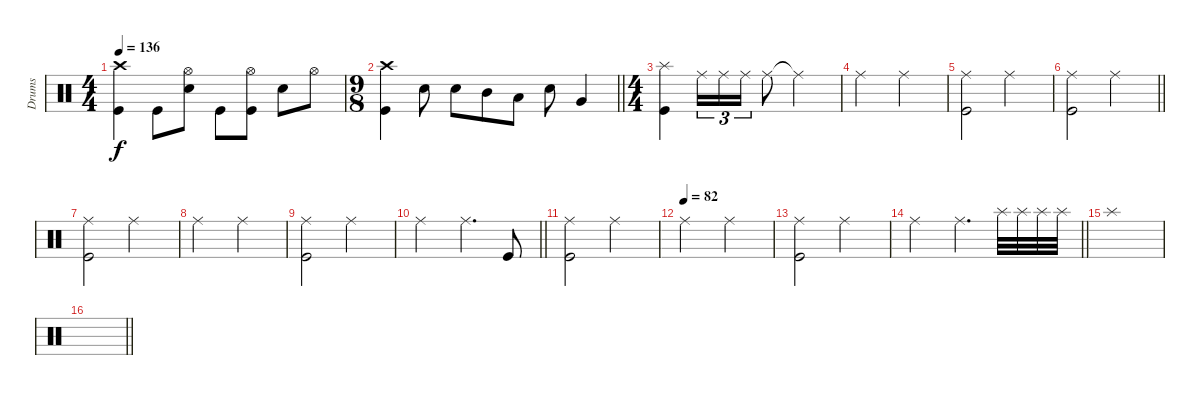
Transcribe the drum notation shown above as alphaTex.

\track ("Drums" "Drums") {instrument percussion}
\staff
\articulation defaults
\ts (4 4)
\tempo 136
\clef neutral
\ks c
("Crash high (hit)" "Kick (hit)").4{dy f} "Kick (hit)".8 ("Hi-Hat (open)" "Electric Snare (hit)").8 "Kick (hit)".8 ("Hi-Hat (open)" "Kick (hit)").8 "Electric Snare (hit)".8 "Hi-Hat (open)".8 |
\ts (9 8)
\barLineRight lightlight
("Crash high (hit)" "Kick (hit)").4 "Electric Snare (hit)".8 "Electric Snare (hit)".8 "Mid Tom (hit)".8 "Low Tom (hit)".8 "Electric Snare (hit)".8 "Very Low Tom (hit)".4 |
\ts (4 4)
\section ("" "")
("Splash (hit)" "Kick (hit)").4 "Ride (middle)".16{tu (3 2)} "Ride (middle)".16{tu (3 2)} "Ride (middle)".16{tu (3 2)} "Ride (middle)".8 "Ride (middle)"{t}.2 |
"Ride (middle)".2 "Ride (middle)".2 |
("Ride (middle)" "Kick (hit)").2 "Ride (middle)".2 |
\barLineRight lightlight
("Ride (middle)" "Kick (hit)").2 "Ride (middle)".2 |
("Ride (middle)" "Kick (hit)").2 "Ride (middle)".2 |
"Ride (middle)".2 "Ride (middle)".2 |
("Ride (middle)" "Kick (hit)").2 "Ride (middle)".2 |
\barLineRight lightlight "Ride (middle)".2 "Ride (middle)".4{d} "Kick (hit)".8
|
("Ride (middle)" "Kick (hit)").2 "Ride (middle)".2 |
\tempo (82)
"Ride (middle)".2 "Ride (middle)".2 |
("Ride (middle)" "Kick (hit)").2 "Ride (middle)".2 |
\barLineRight lightlight "Ride (middle)".2 "Ride (middle)".4{d} "Splash (hit)".32{volume 5} "Splash (hit)".32{volume 11} "Splash (hit)".32 "Splash (hit)".32
|
"Splash (hit)".1 |
\barLineRight lightlight
